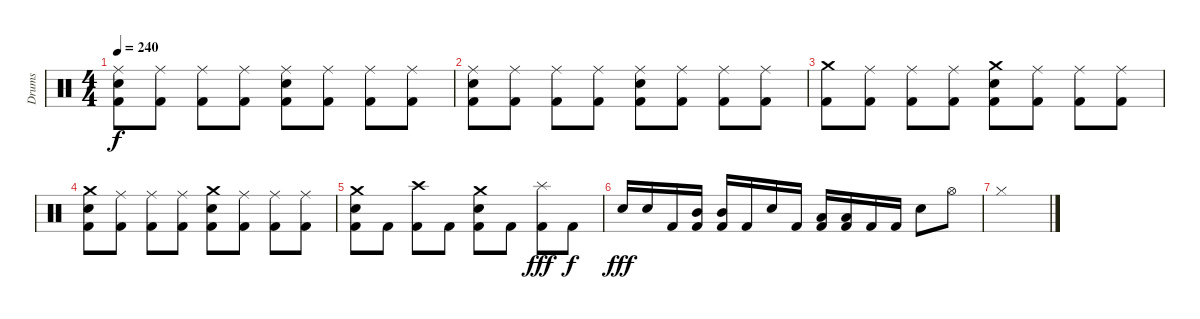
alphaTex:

\track ("Drums" "Drums") {instrument percussion}
\staff {score}
\articulation defaults
\ts (4 4)
\tempo 240
\clef neutral
\ks c
("Ride (middle)" "Electric Snare (hit)" "Kick (hit) 2").8{dy f} ("Ride (middle)" "Kick (hit) 2").8 ("Ride (middle)" "Kick (hit) 2").8 ("Ride (middle)" "Kick (hit) 2").8 ("Ride (middle)" "Electric Snare (hit)" "Kick (hit) 2").8 ("Ride (middle)" "Kick (hit) 2").8 ("Ride (middle)" "Kick (hit) 2").8 ("Ride (middle)" "Kick (hit) 2").8 |
("Ride (middle)" "Electric Snare (hit)" "Kick (hit) 2").8 ("Ride (middle)" "Kick (hit) 2").8 ("Ride (middle)" "Kick (hit) 2").8 ("Ride (middle)" "Kick (hit) 2").8 ("Ride (middle)" "Electric Snare (hit)" "Kick (hit) 2").8 ("Ride (middle)" "Kick (hit) 2").8 ("Ride (middle)" "Kick (hit) 2").8 ("Ride (middle)" "Kick (hit) 2").8 |
("Crash medium (hit)" "Kick (hit) 2").8 ("Ride (middle)" "Kick (hit) 2").8 ("Ride (middle)" "Kick (hit) 2").8 ("Ride (middle)" "Kick (hit) 2").8 ("Crash medium (hit)" "Electric Snare (hit)" "Kick (hit) 2").8 ("Ride (middle)" "Kick (hit) 2").8 ("Ride (middle)" "Kick (hit) 2").8 ("Ride (middle)" "Kick (hit) 2").8 |
("Crash medium (hit)" "Electric Snare (hit)" "Kick (hit) 2").8 ("Ride (middle)" "Kick (hit) 2").8 ("Ride (middle)" "Kick (hit) 2").8 ("Ride (middle)" "Kick (hit) 2").8 ("Crash medium (hit)" "Electric Snare (hit)" "Kick (hit) 2").8 ("Ride (middle)" "Kick (hit) 2").8 ("Ride (middle)" "Kick (hit) 2").8 ("Ride (middle)" "Kick (hit) 2").8 |
("Crash medium (hit)" "Electric Snare (hit)" "Kick (hit) 2").8 "Kick (hit) 2".8 ("Crash high (hit)" "Kick (hit) 2").8 "Kick (hit) 2".8 ("Crash medium (hit)" "Electric Snare (hit)" "Kick (hit) 2").8 "Kick (hit) 2".8 ("Splash (hit)" "Kick (hit) 2").8{dy fff} "Kick (hit) 2".8{dy f} |
"Electric Snare (hit)".16{dy fff} "Electric Snare (hit)".16 "Kick (hit) 2".16 ("Mid Tom (hit)" "Kick (hit) 2").16 ("Mid Tom (hit)" "Kick (hit) 2").16 "Kick (hit) 2".16 "Electric Snare (hit)".16 "Kick (hit) 2".16 ("Low Tom (hit)" "Kick (hit) 2").16 ("Low Tom (hit)" "Kick (hit) 2").16 "Kick (hit) 2".16 "Kick (hit) 2".16 "Electric Snare (hit)".8 "Hi-Hat (open)".8 |
"Hi-Hat (closed)".1
